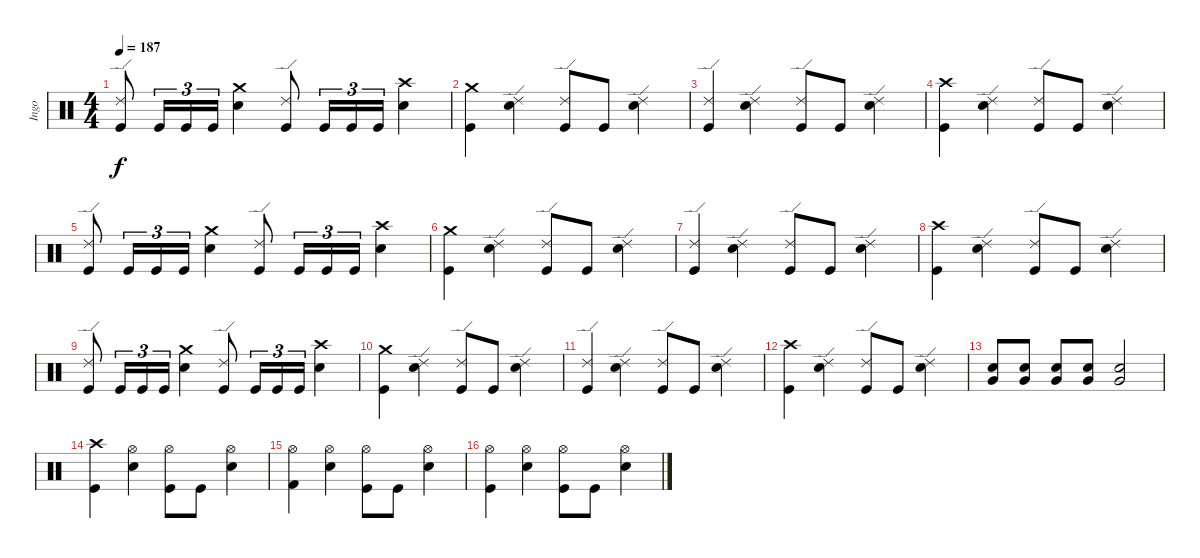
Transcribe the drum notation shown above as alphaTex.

\track ("Ingo" "Ingo") {instrument percussion}
\staff {score}
\articulation defaults
\ts (4 4)
\tempo 187
\clef neutral
\ks c
("Ride (edge) 2" "Kick (hit)").8{dy f} "Kick (hit)".16{tu (3 2)} "Kick (hit)".16{tu (3 2)} "Kick (hit)".16{tu (3 2)} ("Crash medium (hit)" "Snare (hit) 2").4 ("Ride (edge) 2" "Kick (hit)").8 "Kick (hit)".16{tu (3 2)} "Kick (hit)".16{tu (3 2)} "Kick (hit)".16{tu (3 2)} ("Crash high (hit)" "Snare (hit) 2").4 |
("Crash medium (hit)" "Kick (hit)").4 ("Ride (edge) 2" "Snare (hit) 2").4 ("Ride (edge) 2" "Kick (hit)").8 "Kick (hit)".8 ("Ride (edge) 2" "Snare (hit) 2").4 |
("Ride (edge) 2" "Kick (hit)").4 ("Ride (edge) 2" "Snare (hit) 2").4 ("Ride (edge) 2" "Kick (hit)").8 "Kick (hit)".8 ("Ride (edge) 2" "Snare (hit) 2").4 |
("Crash high (hit)" "Kick (hit)").4 ("Ride (edge) 2" "Snare (hit) 2").4 ("Ride (edge) 2" "Kick (hit)").8 "Kick (hit)".8 ("Ride (edge) 2" "Snare (hit) 2").4 |
("Ride (edge) 2" "Kick (hit)").8 "Kick (hit)".16{tu (3 2)} "Kick (hit)".16{tu (3 2)} "Kick (hit)".16{tu (3 2)} ("Crash medium (hit)" "Snare (hit) 2").4 ("Ride (edge) 2" "Kick (hit)").8 "Kick (hit)".16{tu (3 2)} "Kick (hit)".16{tu (3 2)} "Kick (hit)".16{tu (3 2)} ("Crash high (hit)" "Snare (hit) 2").4 |
("Crash medium (hit)" "Kick (hit)").4 ("Ride (edge) 2" "Snare (hit) 2").4 ("Ride (edge) 2" "Kick (hit)").8 "Kick (hit)".8 ("Ride (edge) 2" "Snare (hit) 2").4 |
("Ride (edge) 2" "Kick (hit)").4 ("Ride (edge) 2" "Snare (hit) 2").4 ("Ride (edge) 2" "Kick (hit)").8 "Kick (hit)".8 ("Ride (edge) 2" "Snare (hit) 2").4 |
("Crash high (hit)" "Kick (hit)").4 ("Ride (edge) 2" "Snare (hit) 2").4 ("Ride (edge) 2" "Kick (hit)").8 "Kick (hit)".8 ("Ride (edge) 2" "Snare (hit) 2").4 |
("Ride (edge) 2" "Kick (hit)").8 "Kick (hit)".16{tu (3 2)} "Kick (hit)".16{tu (3 2)} "Kick (hit)".16{tu (3 2)} ("Crash medium (hit)" "Snare (hit) 2").4 ("Ride (edge) 2" "Kick (hit)").8 "Kick (hit)".16{tu (3 2)} "Kick (hit)".16{tu (3 2)} "Kick (hit)".16{tu (3 2)} ("Crash high (hit)" "Snare (hit) 2").4 |
("Crash medium (hit)" "Kick (hit)").4 ("Ride (edge) 2" "Snare (hit) 2").4 ("Ride (edge) 2" "Kick (hit)").8 "Kick (hit)".8 ("Ride (edge) 2" "Snare (hit) 2").4 |
("Ride (edge) 2" "Kick (hit)").4 ("Ride (edge) 2" "Snare (hit) 2").4 ("Ride (edge) 2" "Kick (hit)").8 "Kick (hit)".8 ("Ride (edge) 2" "Snare (hit) 2").4 |
("Crash high (hit)" "Kick (hit)").4 ("Ride (edge) 2" "Snare (hit) 2").4 ("Ride (edge) 2" "Kick (hit)").8 "Kick (hit)".8 ("Ride (edge) 2" "Snare (hit) 2").4 |
("Very Low Tom (hit)" "Snare (hit) 2").8 ("Very Low Tom (hit)" "Snare (hit) 2").8 ("Very Low Tom (hit)" "Snare (hit) 2").8 ("Very Low Tom (hit)" "Snare (hit) 2").8 ("Very Low Tom (hit)" "Snare (hit) 2").2 |
("Crash high (hit)" "Kick (hit)").4 ("Hi-Hat (open)" "Snare (hit) 2").4 ("Hi-Hat (open)" "Kick (hit)").8 "Kick (hit)".8 ("Hi-Hat (open)" "Snare (hit) 2").4 |
("Hi-Hat (open)" "Kick (hit) 2").4 ("Hi-Hat (open)" "Snare (hit) 2").4 ("Hi-Hat (open)" "Kick (hit)").8 "Kick (hit)".8 ("Hi-Hat (open)" "Snare (hit) 2").4 |
("Hi-Hat (open)" "Kick (hit)").4 ("Hi-Hat (open)" "Snare (hit) 2").4 ("Hi-Hat (open)" "Kick (hit)").8 "Kick (hit)".8 ("Hi-Hat (open)" "Snare (hit) 2").4
